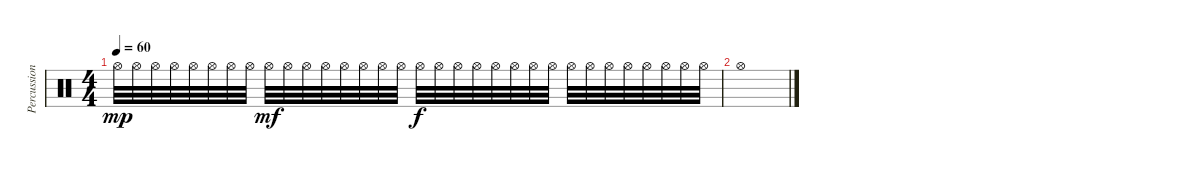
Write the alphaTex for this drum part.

\track ("Percussion2" "Percussion") {instrument percussion}
\staff {score}
\articulation defaults
\ts (4 4)
\tempo 60
\clef neutral
\ks c "Hi-Hat (open)".32{dy mp} "Hi-Hat (open)".32 "Hi-Hat (open)".32 "Hi-Hat (open)".32 "Hi-Hat (open)".32 "Hi-Hat (open)".32 "Hi-Hat (open)".32 "Hi-Hat (open)".32 "Hi-Hat (open)".32{dy mf} "Hi-Hat (open)".32 "Hi-Hat (open)".32 "Hi-Hat (open)".32 "Hi-Hat (open)".32 "Hi-Hat (open)".32 "Hi-Hat (open)".32 "Hi-Hat (open)".32 "Hi-Hat (open)".32{dy f} "Hi-Hat (open)".32 "Hi-Hat (open)".32 "Hi-Hat (open)".32 "Hi-Hat (open)".32 "Hi-Hat (open)".32 "Hi-Hat (open)".32 "Hi-Hat (open)".32 "Hi-Hat (open)".32 "Hi-Hat (open)".32 "Hi-Hat (open)".32 "Hi-Hat (open)".32 "Hi-Hat (open)".32 "Hi-Hat (open)".32 "Hi-Hat (open)".32 "Hi-Hat (open)".32
|
"Hi-Hat (open)".1
